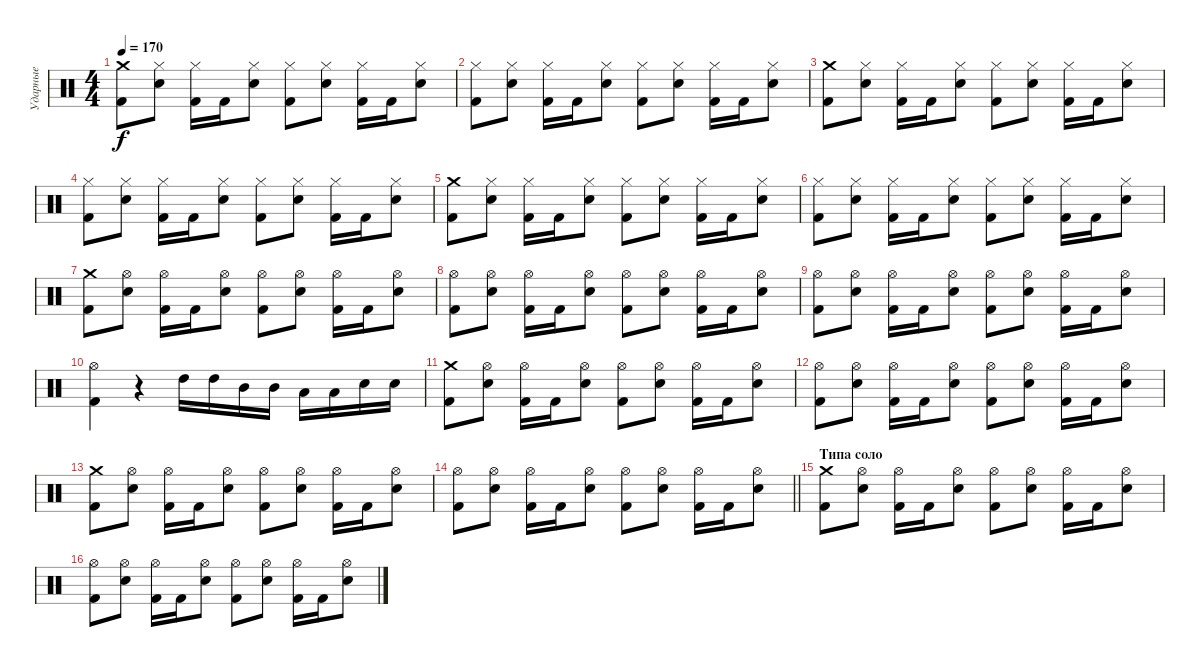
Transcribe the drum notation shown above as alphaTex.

\track ("Ударные" "Ударные") {instrument percussion}
\staff {score}
\articulation defaults
\ts (4 4)
\tempo 170
\clef neutral
\ks c
("Crash medium (hit)" "Kick (hit) 2").8{dy f} ("Hi-Hat (closed)" "Snare (hit) 2").8 ("Hi-Hat (closed)" "Kick (hit) 2").16 "Kick (hit) 2".16 ("Hi-Hat (closed)" "Snare (hit) 2").8 ("Hi-Hat (closed)" "Kick (hit) 2").8 ("Hi-Hat (closed)" "Snare (hit) 2").8 ("Hi-Hat (closed)" "Kick (hit) 2").16 "Kick (hit) 2".16 ("Hi-Hat (closed)" "Snare (hit) 2").8 |
("Hi-Hat (closed)" "Kick (hit) 2").8 ("Hi-Hat (closed)" "Snare (hit) 2").8 ("Hi-Hat (closed)" "Kick (hit) 2").16 "Kick (hit) 2".16 ("Hi-Hat (closed)" "Snare (hit) 2").8 ("Hi-Hat (closed)" "Kick (hit) 2").8 ("Hi-Hat (closed)" "Snare (hit) 2").8 ("Hi-Hat (closed)" "Kick (hit) 2").16 "Kick (hit) 2".16 ("Hi-Hat (closed)" "Snare (hit) 2").8 |
("Crash medium (hit)" "Kick (hit) 2").8 ("Hi-Hat (closed)" "Snare (hit) 2").8 ("Hi-Hat (closed)" "Kick (hit) 2").16 "Kick (hit) 2".16 ("Hi-Hat (closed)" "Snare (hit) 2").8 ("Hi-Hat (closed)" "Kick (hit) 2").8 ("Hi-Hat (closed)" "Snare (hit) 2").8 ("Hi-Hat (closed)" "Kick (hit) 2").16 "Kick (hit) 2".16 ("Hi-Hat (closed)" "Snare (hit) 2").8 |
("Hi-Hat (closed)" "Kick (hit) 2").8 ("Hi-Hat (closed)" "Snare (hit) 2").8 ("Hi-Hat (closed)" "Kick (hit) 2").16 "Kick (hit) 2".16 ("Hi-Hat (closed)" "Snare (hit) 2").8 ("Hi-Hat (closed)" "Kick (hit) 2").8 ("Hi-Hat (closed)" "Snare (hit) 2").8 ("Hi-Hat (closed)" "Kick (hit) 2").16 "Kick (hit) 2".16 ("Hi-Hat (closed)" "Snare (hit) 2").8 |
("Crash medium (hit)" "Kick (hit) 2").8 ("Hi-Hat (closed)" "Snare (hit) 2").8 ("Hi-Hat (closed)" "Kick (hit) 2").16 "Kick (hit) 2".16 ("Hi-Hat (closed)" "Snare (hit) 2").8 ("Hi-Hat (closed)" "Kick (hit) 2").8 ("Hi-Hat (closed)" "Snare (hit) 2").8 ("Hi-Hat (closed)" "Kick (hit) 2").16 "Kick (hit) 2".16 ("Hi-Hat (closed)" "Snare (hit) 2").8 |
("Hi-Hat (closed)" "Kick (hit) 2").8 ("Hi-Hat (closed)" "Snare (hit) 2").8 ("Hi-Hat (closed)" "Kick (hit) 2").16 "Kick (hit) 2".16 ("Hi-Hat (closed)" "Snare (hit) 2").8 ("Hi-Hat (closed)" "Kick (hit) 2").8 ("Hi-Hat (closed)" "Snare (hit) 2").8 ("Hi-Hat (closed)" "Kick (hit) 2").16 "Kick (hit) 2".16 ("Hi-Hat (closed)" "Snare (hit) 2").8 |
("Crash medium (hit)" "Kick (hit) 2").8 ("Hi-Hat (open)" "Snare (hit) 2").8 ("Hi-Hat (open)" "Kick (hit) 2").16 "Kick (hit) 2".16 ("Hi-Hat (open)" "Snare (hit) 2").8 ("Hi-Hat (open)" "Kick (hit) 2").8 ("Hi-Hat (open)" "Snare (hit) 2").8 ("Hi-Hat (open)" "Kick (hit) 2").16 "Kick (hit) 2".16 ("Hi-Hat (open)" "Snare (hit) 2").8 |
("Hi-Hat (open)" "Kick (hit) 2").8 ("Hi-Hat (open)" "Snare (hit) 2").8 ("Hi-Hat (open)" "Kick (hit) 2").16 "Kick (hit) 2".16 ("Hi-Hat (open)" "Snare (hit) 2").8 ("Hi-Hat (open)" "Kick (hit) 2").8 ("Hi-Hat (open)" "Snare (hit) 2").8 ("Hi-Hat (open)" "Kick (hit) 2").16 "Kick (hit) 2".16 ("Hi-Hat (open)" "Snare (hit) 2").8 |
("Hi-Hat (open)" "Kick (hit) 2").8 ("Hi-Hat (open)" "Snare (hit) 2").8 ("Hi-Hat (open)" "Kick (hit) 2").16 "Kick (hit) 2".16 ("Hi-Hat (open)" "Snare (hit) 2").8 ("Hi-Hat (open)" "Kick (hit) 2").8 ("Hi-Hat (open)" "Snare (hit) 2").8 ("Hi-Hat (open)" "Kick (hit) 2").16 "Kick (hit) 2".16 ("Hi-Hat (open)" "Snare (hit) 2").8 |
("Hi-Hat (open)" "Kick (hit) 2").4 r.4 "High Tom (hit)".16 "High Tom (hit)".16 "Mid Tom (hit)".16 "Mid Tom (hit)".16 "Low Tom (hit)".16 "Low Tom (hit)".16 "Snare (hit) 2".16 "Snare (hit) 2".16 |
("Crash medium (hit)" "Kick (hit) 2").8 ("Hi-Hat (open)" "Snare (hit) 2").8 ("Hi-Hat (open)" "Kick (hit) 2").16 "Kick (hit) 2".16 ("Hi-Hat (open)" "Snare (hit) 2").8 ("Hi-Hat (open)" "Kick (hit) 2").8 ("Hi-Hat (open)" "Snare (hit) 2").8 ("Hi-Hat (open)" "Kick (hit) 2").16 "Kick (hit) 2".16 ("Hi-Hat (open)" "Snare (hit) 2").8 |
("Hi-Hat (open)" "Kick (hit) 2").8 ("Hi-Hat (open)" "Snare (hit) 2").8 ("Hi-Hat (open)" "Kick (hit) 2").16 "Kick (hit) 2".16 ("Hi-Hat (open)" "Snare (hit) 2").8 ("Hi-Hat (open)" "Kick (hit) 2").8 ("Hi-Hat (open)" "Snare (hit) 2").8 ("Hi-Hat (open)" "Kick (hit) 2").16 "Kick (hit) 2".16 ("Hi-Hat (open)" "Snare (hit) 2").8 |
("Crash medium (hit)" "Kick (hit) 2").8 ("Hi-Hat (open)" "Snare (hit) 2").8 ("Hi-Hat (open)" "Kick (hit) 2").16 "Kick (hit) 2".16 ("Hi-Hat (open)" "Snare (hit) 2").8 ("Hi-Hat (open)" "Kick (hit) 2").8 ("Hi-Hat (open)" "Snare (hit) 2").8 ("Hi-Hat (open)" "Kick (hit) 2").16 "Kick (hit) 2".16 ("Hi-Hat (open)" "Snare (hit) 2").8 |
\barLineRight lightlight
("Hi-Hat (open)" "Kick (hit) 2").8 ("Hi-Hat (open)" "Snare (hit) 2").8 ("Hi-Hat (open)" "Kick (hit) 2").16 "Kick (hit) 2".16 ("Hi-Hat (open)" "Snare (hit) 2").8 ("Hi-Hat (open)" "Kick (hit) 2").8 ("Hi-Hat (open)" "Snare (hit) 2").8 ("Hi-Hat (open)" "Kick (hit) 2").16 "Kick (hit) 2".16 ("Hi-Hat (open)" "Snare (hit) 2").8 |
\section ("" "Типа соло")
("Crash medium (hit)" "Kick (hit) 2").8 ("Hi-Hat (open)" "Snare (hit) 2").8 ("Hi-Hat (open)" "Kick (hit) 2").16 "Kick (hit) 2".16 ("Hi-Hat (open)" "Snare (hit) 2").8 ("Hi-Hat (open)" "Kick (hit) 2").8 ("Hi-Hat (open)" "Snare (hit) 2").8 ("Hi-Hat (open)" "Kick (hit) 2").16 "Kick (hit) 2".16 ("Hi-Hat (open)" "Snare (hit) 2").8 |
("Hi-Hat (open)" "Kick (hit) 2").8 ("Hi-Hat (open)" "Snare (hit) 2").8 ("Hi-Hat (open)" "Kick (hit) 2").16 "Kick (hit) 2".16 ("Hi-Hat (open)" "Snare (hit) 2").8 ("Hi-Hat (open)" "Kick (hit) 2").8 ("Hi-Hat (open)" "Snare (hit) 2").8 ("Hi-Hat (open)" "Kick (hit) 2").16 "Kick (hit) 2".16 ("Hi-Hat (open)" "Snare (hit) 2").8
